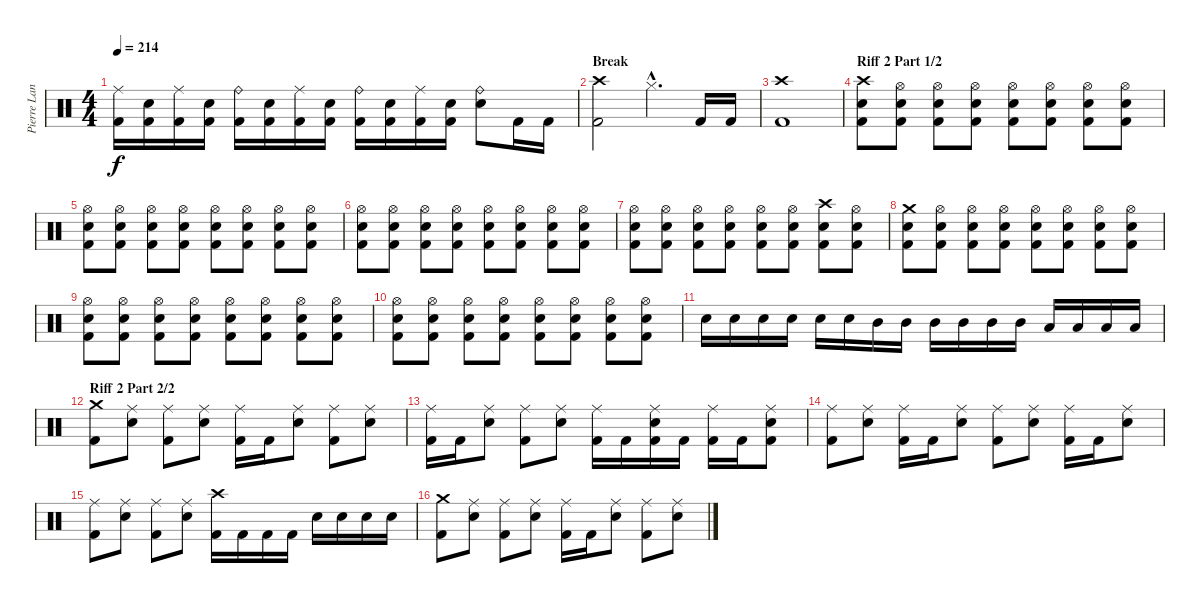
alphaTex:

\track ("Pierre Langlois (Drums)" "Pierre Lan") {instrument percussion}
\staff {score}
\articulation defaults
\ts (4 4)
\tempo 214
\clef neutral
\ks c
("Ride (middle)" "Kick (hit) 2").16{dy f} ("Snare (hit) 2" "Kick (hit) 2").16 ("Ride (middle)" "Kick (hit) 2").16 ("Snare (hit) 2" "Kick (hit) 2").16 ("Ride (bell)" "Kick (hit) 2").16 ("Snare (hit) 2" "Kick (hit) 2").16 ("Ride (middle)" "Kick (hit) 2").16 ("Snare (hit) 2" "Kick (hit) 2").16 ("Ride (bell)" "Kick (hit) 2").16 ("Snare (hit) 2" "Kick (hit) 2").16 ("Ride (middle)" "Kick (hit) 2").16 ("Snare (hit) 2" "Kick (hit) 2").16 ("Ride (bell)" "Snare (hit) 2").8 "Kick (hit) 2".16 "Kick (hit) 2".16 |
\section ("" "Break")
("Crash high (hit)" "Kick (hit) 2").2 "Hi-Hat (closed)"{hac}.4{d} "Kick (hit) 2".16 "Kick (hit) 2".16 |
("Crash high (hit)" "Kick (hit) 2").1 |
\section ("" "Riff 2 Part 1/2")
("Crash high (hit)" "Snare (hit) 2" "Kick (hit) 2").8 ("Hi-Hat (open)" "Snare (hit) 2" "Kick (hit) 2").8 ("Hi-Hat (open)" "Snare (hit) 2" "Kick (hit) 2").8 ("Hi-Hat (open)" "Snare (hit) 2" "Kick (hit) 2").8 ("Hi-Hat (open)" "Snare (hit) 2" "Kick (hit) 2").8 ("Hi-Hat (open)" "Snare (hit) 2" "Kick (hit) 2").8 ("Hi-Hat (open)" "Snare (hit) 2" "Kick (hit) 2").8 ("Hi-Hat (open)" "Snare (hit) 2" "Kick (hit) 2").8 |
("Hi-Hat (open)" "Snare (hit) 2" "Kick (hit) 2").8 ("Hi-Hat (open)" "Snare (hit) 2" "Kick (hit) 2").8 ("Hi-Hat (open)" "Snare (hit) 2" "Kick (hit) 2").8 ("Hi-Hat (open)" "Snare (hit) 2" "Kick (hit) 2").8 ("Hi-Hat (open)" "Snare (hit) 2" "Kick (hit) 2").8 ("Hi-Hat (open)" "Snare (hit) 2" "Kick (hit) 2").8 ("Hi-Hat (open)" "Snare (hit) 2" "Kick (hit) 2").8 ("Hi-Hat (open)" "Snare (hit) 2" "Kick (hit) 2").8 |
("Hi-Hat (open)" "Snare (hit) 2" "Kick (hit) 2").8 ("Hi-Hat (open)" "Snare (hit) 2" "Kick (hit) 2").8 ("Hi-Hat (open)" "Snare (hit) 2" "Kick (hit) 2").8 ("Hi-Hat (open)" "Snare (hit) 2" "Kick (hit) 2").8 ("Hi-Hat (open)" "Snare (hit) 2" "Kick (hit) 2").8 ("Hi-Hat (open)" "Snare (hit) 2" "Kick (hit) 2").8 ("Hi-Hat (open)" "Snare (hit) 2" "Kick (hit) 2").8 ("Hi-Hat (open)" "Snare (hit) 2" "Kick (hit) 2").8 |
("Hi-Hat (open)" "Snare (hit) 2" "Kick (hit) 2").8 ("Hi-Hat (open)" "Snare (hit) 2" "Kick (hit) 2").8 ("Hi-Hat (open)" "Snare (hit) 2" "Kick (hit) 2").8 ("Hi-Hat (open)" "Snare (hit) 2" "Kick (hit) 2").8 ("Hi-Hat (open)" "Snare (hit) 2" "Kick (hit) 2").8 ("Hi-Hat (open)" "Snare (hit) 2" "Kick (hit) 2").8 ("Crash high (hit)" "Snare (hit) 2" "Kick (hit) 2").8 ("Hi-Hat (open)" "Snare (hit) 2" "Kick (hit) 2").8 |
("Crash medium (hit)" "Snare (hit) 2" "Kick (hit) 2").8 ("Hi-Hat (open)" "Snare (hit) 2" "Kick (hit) 2").8 ("Hi-Hat (open)" "Snare (hit) 2" "Kick (hit) 2").8 ("Hi-Hat (open)" "Snare (hit) 2" "Kick (hit) 2").8 ("Hi-Hat (open)" "Snare (hit) 2" "Kick (hit) 2").8 ("Hi-Hat (open)" "Snare (hit) 2" "Kick (hit) 2").8 ("Hi-Hat (open)" "Snare (hit) 2" "Kick (hit) 2").8 ("Hi-Hat (open)" "Snare (hit) 2" "Kick (hit) 2").8 |
("Hi-Hat (open)" "Snare (hit) 2" "Kick (hit) 2").8 ("Hi-Hat (open)" "Snare (hit) 2" "Kick (hit) 2").8 ("Hi-Hat (open)" "Snare (hit) 2" "Kick (hit) 2").8 ("Hi-Hat (open)" "Snare (hit) 2" "Kick (hit) 2").8 ("Hi-Hat (open)" "Snare (hit) 2" "Kick (hit) 2").8 ("Hi-Hat (open)" "Snare (hit) 2" "Kick (hit) 2").8 ("Hi-Hat (open)" "Snare (hit) 2" "Kick (hit) 2").8 ("Hi-Hat (open)" "Snare (hit) 2" "Kick (hit) 2").8 |
("Hi-Hat (open)" "Snare (hit) 2" "Kick (hit) 2").8 ("Hi-Hat (open)" "Snare (hit) 2" "Kick (hit) 2").8 ("Hi-Hat (open)" "Snare (hit) 2" "Kick (hit) 2").8 ("Hi-Hat (open)" "Snare (hit) 2" "Kick (hit) 2").8 ("Hi-Hat (open)" "Snare (hit) 2" "Kick (hit) 2").8 ("Hi-Hat (open)" "Snare (hit) 2" "Kick (hit) 2").8 ("Hi-Hat (open)" "Snare (hit) 2" "Kick (hit) 2").8 ("Hi-Hat (open)" "Snare (hit) 2" "Kick (hit) 2").8 |
"Snare (hit) 2".16 "Snare (hit) 2".16 "Snare (hit) 2".16 "Snare (hit) 2".16 "Snare (hit) 2".16 "Snare (hit) 2".16 "Mid Tom (hit)".16 "Mid Tom (hit)".16 "Mid Tom (hit)".16 "Mid Tom (hit)".16 "Mid Tom (hit)".16 "Mid Tom (hit)".16 "Low Tom (hit)".16 "Low Tom (hit)".16 "Low Floor Tom (hit)".16 "Low Floor Tom (hit)".16 |
\section ("" "Riff 2 Part 2/2")
("Crash medium (hit)" "Kick (hit) 2").8 ("Ride (middle)" "Snare (hit) 2").8 ("Ride (middle)" "Kick (hit) 2").8 ("Ride (middle)" "Snare (hit) 2").8 ("Ride (middle)" "Kick (hit) 2").16 "Kick (hit) 2".16 ("Ride (middle)" "Snare (hit) 2").8 ("Ride (middle)" "Kick (hit) 2").8 ("Ride (middle)" "Snare (hit) 2").8 |
("Ride (middle)" "Kick (hit) 2").16 "Kick (hit) 2".16 ("Ride (middle)" "Snare (hit) 2").8 ("Ride (middle)" "Kick (hit) 2").8 ("Ride (middle)" "Snare (hit) 2").8 ("Ride (middle)" "Kick (hit) 2").16 "Kick (hit) 2".16 ("Ride (middle)" "Snare (hit) 2" "Kick (hit) 2").16 "Kick (hit) 2".16 ("Ride (middle)" "Kick (hit) 2").16 "Kick (hit) 2".16 ("Ride (middle)" "Snare (hit) 2" "Kick (hit) 2").8 |
("Ride (middle)" "Kick (hit) 2").8 ("Ride (middle)" "Snare (hit) 2").8 ("Ride (middle)" "Kick (hit) 2").16 "Kick (hit) 2".16 ("Ride (middle)" "Snare (hit) 2").8 ("Ride (middle)" "Kick (hit) 2").8 ("Ride (middle)" "Snare (hit) 2").8 ("Ride (middle)" "Kick (hit) 2").16 "Kick (hit) 2".16 ("Ride (middle)" "Snare (hit) 2").8 |
("Ride (middle)" "Kick (hit) 2").8 ("Ride (middle)" "Snare (hit) 2").8 ("Ride (middle)" "Kick (hit) 2").8 ("Ride (middle)" "Snare (hit) 2").8 ("Crash high (hit)" "Kick (hit) 2").16 "Kick (hit) 2".16 "Kick (hit) 2".16 "Kick (hit) 2".16 "Snare (hit) 2".16 "Snare (hit) 2".16 "Snare (hit) 2".16 "Snare (hit) 2".16 |
("Crash medium (hit)" "Kick (hit) 2").8 ("Ride (middle)" "Snare (hit) 2").8 ("Ride (middle)" "Kick (hit) 2").8 ("Ride (middle)" "Snare (hit) 2").8 ("Ride (middle)" "Kick (hit) 2").16 "Kick (hit) 2".16 ("Ride (middle)" "Snare (hit) 2").8 ("Ride (middle)" "Kick (hit) 2").8 ("Ride (middle)" "Snare (hit) 2").8
